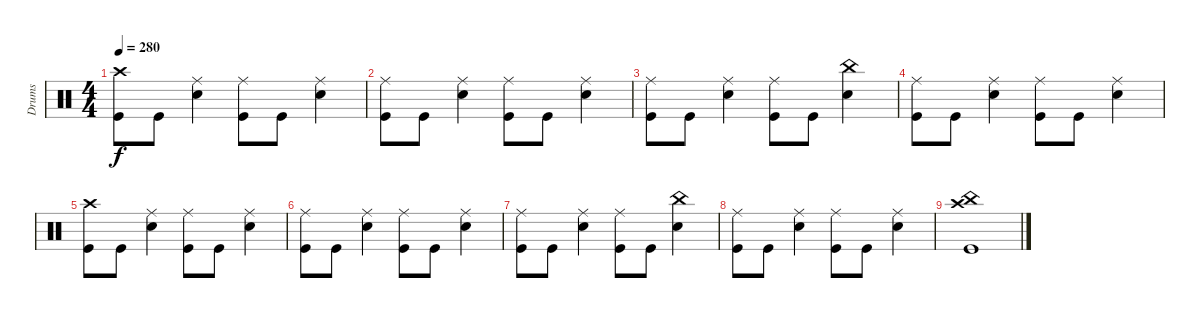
\track ("Drums" "Drums") {instrument percussion}
\staff {score}
\articulation defaults
\ts (4 4)
\tempo 280
\clef neutral
\ks c
("Crash high (hit)" "Kick (hit)").8{dy f} "Kick (hit)".8 ("Ride (middle)" "Electric Snare (hit)").4 ("Ride (middle)" "Kick (hit)").8 "Kick (hit)".8 ("Ride (middle)" "Electric Snare (hit)").4 |
("Ride (middle)" "Kick (hit)").8 "Kick (hit)".8 ("Ride (middle)" "Electric Snare (hit)").4 ("Ride (middle)" "Kick (hit)").8 "Kick (hit)".8 ("Ride (middle)" "Electric Snare (hit)").4 |
("Ride (middle)" "Kick (hit)").8 "Kick (hit)".8 ("Ride (middle)" "Electric Snare (hit)").4 ("Ride (middle)" "Kick (hit)").8 "Kick (hit)".8 ("China (hit)" "Electric Snare (hit)").4 |
("Ride (middle)" "Kick (hit)").8 "Kick (hit)".8 ("Ride (middle)" "Electric Snare (hit)").4 ("Ride (middle)" "Kick (hit)").8 "Kick (hit)".8 ("Ride (middle)" "Electric Snare (hit)").4 |
("Crash high (hit)" "Kick (hit)").8 "Kick (hit)".8 ("Ride (middle)" "Electric Snare (hit)").4 ("Ride (middle)" "Kick (hit)").8 "Kick (hit)".8 ("Ride (middle)" "Electric Snare (hit)").4 |
("Ride (middle)" "Kick (hit)").8 "Kick (hit)".8 ("Ride (middle)" "Electric Snare (hit)").4 ("Ride (middle)" "Kick (hit)").8 "Kick (hit)".8 ("Ride (middle)" "Electric Snare (hit)").4 |
("Ride (middle)" "Kick (hit)").8 "Kick (hit)".8 ("Ride (middle)" "Electric Snare (hit)").4 ("Ride (middle)" "Kick (hit)").8 "Kick (hit)".8 ("China (hit)" "Electric Snare (hit)").4 |
("Ride (middle)" "Kick (hit)").8 "Kick (hit)".8 ("Ride (middle)" "Electric Snare (hit)").4 ("Ride (middle)" "Kick (hit)").8 "Kick (hit)".8 ("Ride (middle)" "Electric Snare (hit)").4 |
("China (hit)" "Crash high (hit)" "Kick (hit)").1
